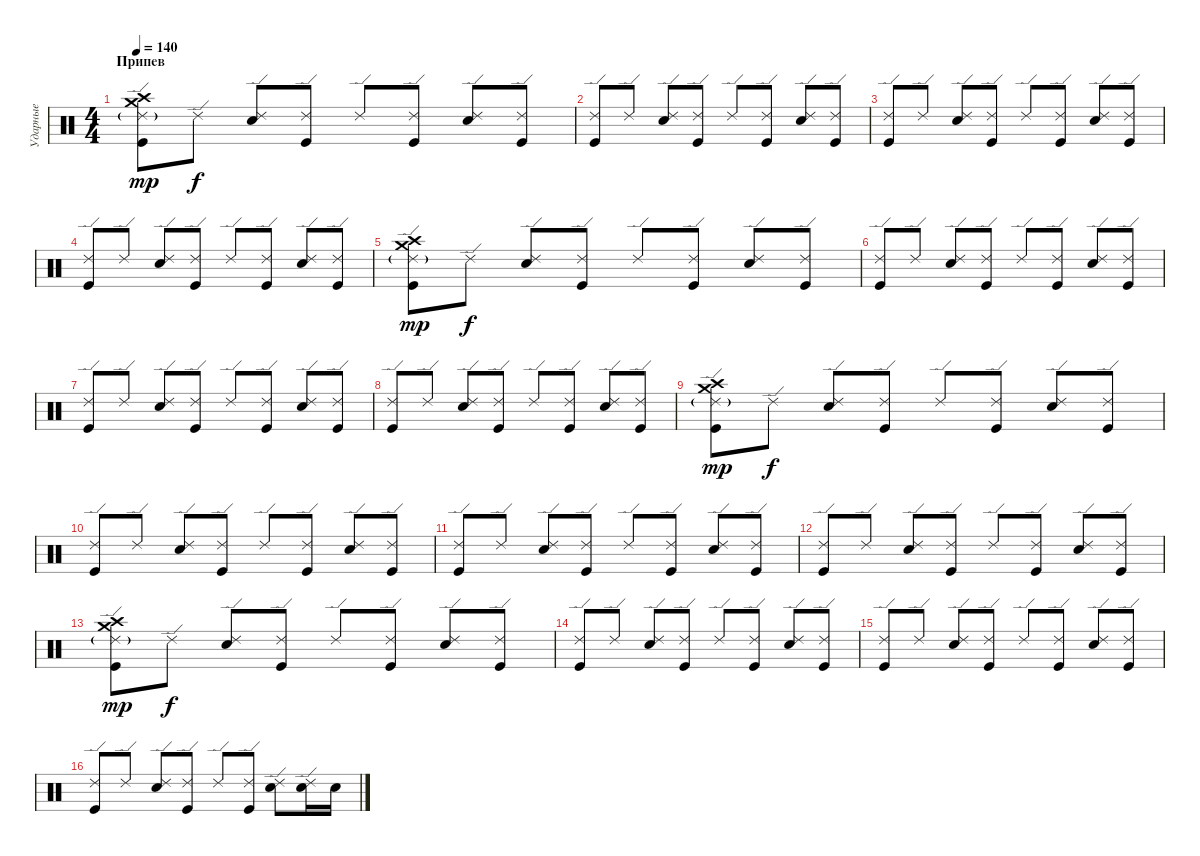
\track ("Ударные" "Ударные") {instrument percussion}
\staff {score}
\articulation defaults
\ts (4 4)
\section ("" "Припев")
\tempo 140
\clef neutral
\ks c
("Crash medium (hit)" "Crash high (hit)" "Ride (edge) 2"{g} "Kick (hit)").8{dy mp} "Ride (edge) 2".8{dy f} ("Ride (edge) 2" "Electric Snare (hit)").8 ("Ride (edge) 2" "Kick (hit)").8 "Ride (edge) 2".8 ("Ride (edge) 2" "Kick (hit)").8 ("Ride (edge) 2" "Electric Snare (hit)").8 ("Ride (edge) 2" "Kick (hit)").8 |
("Ride (edge) 2" "Kick (hit)").8 "Ride (edge) 2".8 ("Ride (edge) 2" "Electric Snare (hit)").8 ("Ride (edge) 2" "Kick (hit)").8 "Ride (edge) 2".8 ("Ride (edge) 2" "Kick (hit)").8 ("Ride (edge) 2" "Electric Snare (hit)").8 ("Ride (edge) 2" "Kick (hit)").8 |
("Ride (edge) 2" "Kick (hit)").8 "Ride (edge) 2".8 ("Ride (edge) 2" "Electric Snare (hit)").8 ("Ride (edge) 2" "Kick (hit)").8 "Ride (edge) 2".8 ("Ride (edge) 2" "Kick (hit)").8 ("Ride (edge) 2" "Electric Snare (hit)").8 ("Ride (edge) 2" "Kick (hit)").8 |
("Ride (edge) 2" "Kick (hit)").8 "Ride (edge) 2".8 ("Ride (edge) 2" "Electric Snare (hit)").8 ("Ride (edge) 2" "Kick (hit)").8 "Ride (edge) 2".8 ("Ride (edge) 2" "Kick (hit)").8 ("Ride (edge) 2" "Electric Snare (hit)").8 ("Ride (edge) 2" "Kick (hit)").8 |
("Crash medium (hit)" "Crash high (hit)" "Ride (edge) 2"{g} "Kick (hit)").8{dy mp} "Ride (edge) 2".8{dy f} ("Ride (edge) 2" "Electric Snare (hit)").8 ("Ride (edge) 2" "Kick (hit)").8 "Ride (edge) 2".8 ("Ride (edge) 2" "Kick (hit)").8 ("Ride (edge) 2" "Electric Snare (hit)").8 ("Ride (edge) 2" "Kick (hit)").8 |
("Ride (edge) 2" "Kick (hit)").8 "Ride (edge) 2".8 ("Ride (edge) 2" "Electric Snare (hit)").8 ("Ride (edge) 2" "Kick (hit)").8 "Ride (edge) 2".8 ("Ride (edge) 2" "Kick (hit)").8 ("Ride (edge) 2" "Electric Snare (hit)").8 ("Ride (edge) 2" "Kick (hit)").8 |
("Ride (edge) 2" "Kick (hit)").8 "Ride (edge) 2".8 ("Ride (edge) 2" "Electric Snare (hit)").8 ("Ride (edge) 2" "Kick (hit)").8 "Ride (edge) 2".8 ("Ride (edge) 2" "Kick (hit)").8 ("Ride (edge) 2" "Electric Snare (hit)").8 ("Ride (edge) 2" "Kick (hit)").8 |
("Ride (edge) 2" "Kick (hit)").8 "Ride (edge) 2".8 ("Ride (edge) 2" "Electric Snare (hit)").8 ("Ride (edge) 2" "Kick (hit)").8 "Ride (edge) 2".8 ("Ride (edge) 2" "Kick (hit)").8 ("Ride (edge) 2" "Electric Snare (hit)").8 ("Ride (edge) 2" "Kick (hit)").8 |
("Crash medium (hit)" "Crash high (hit)" "Ride (edge) 2"{g} "Kick (hit)").8{dy mp} "Ride (edge) 2".8{dy f} ("Ride (edge) 2" "Electric Snare (hit)").8 ("Ride (edge) 2" "Kick (hit)").8 "Ride (edge) 2".8 ("Ride (edge) 2" "Kick (hit)").8 ("Ride (edge) 2" "Electric Snare (hit)").8 ("Ride (edge) 2" "Kick (hit)").8 |
("Ride (edge) 2" "Kick (hit)").8 "Ride (edge) 2".8 ("Ride (edge) 2" "Electric Snare (hit)").8 ("Ride (edge) 2" "Kick (hit)").8 "Ride (edge) 2".8 ("Ride (edge) 2" "Kick (hit)").8 ("Ride (edge) 2" "Electric Snare (hit)").8 ("Ride (edge) 2" "Kick (hit)").8 |
("Ride (edge) 2" "Kick (hit)").8 "Ride (edge) 2".8 ("Ride (edge) 2" "Electric Snare (hit)").8 ("Ride (edge) 2" "Kick (hit)").8 "Ride (edge) 2".8 ("Ride (edge) 2" "Kick (hit)").8 ("Ride (edge) 2" "Electric Snare (hit)").8 ("Ride (edge) 2" "Kick (hit)").8 |
("Ride (edge) 2" "Kick (hit)").8 "Ride (edge) 2".8 ("Ride (edge) 2" "Electric Snare (hit)").8 ("Ride (edge) 2" "Kick (hit)").8 "Ride (edge) 2".8 ("Ride (edge) 2" "Kick (hit)").8 ("Ride (edge) 2" "Electric Snare (hit)").8 ("Ride (edge) 2" "Kick (hit)").8 |
("Crash medium (hit)" "Crash high (hit)" "Ride (edge) 2"{g} "Kick (hit)").8{dy mp} "Ride (edge) 2".8{dy f} ("Ride (edge) 2" "Electric Snare (hit)").8 ("Ride (edge) 2" "Kick (hit)").8 "Ride (edge) 2".8 ("Ride (edge) 2" "Kick (hit)").8 ("Ride (edge) 2" "Electric Snare (hit)").8 ("Ride (edge) 2" "Kick (hit)").8 |
("Ride (edge) 2" "Kick (hit)").8 "Ride (edge) 2".8 ("Ride (edge) 2" "Electric Snare (hit)").8 ("Ride (edge) 2" "Kick (hit)").8 "Ride (edge) 2".8 ("Ride (edge) 2" "Kick (hit)").8 ("Ride (edge) 2" "Electric Snare (hit)").8 ("Ride (edge) 2" "Kick (hit)").8 |
("Ride (edge) 2" "Kick (hit)").8 "Ride (edge) 2".8 ("Ride (edge) 2" "Electric Snare (hit)").8 ("Ride (edge) 2" "Kick (hit)").8 "Ride (edge) 2".8 ("Ride (edge) 2" "Kick (hit)").8 ("Ride (edge) 2" "Electric Snare (hit)").8 ("Ride (edge) 2" "Kick (hit)").8 |
("Ride (edge) 2" "Kick (hit)").8 "Ride (edge) 2".8 ("Ride (edge) 2" "Electric Snare (hit)").8 ("Ride (edge) 2" "Kick (hit)").8 "Ride (edge) 2".8 ("Ride (edge) 2" "Kick (hit)").8 ("Ride (edge) 2" "Electric Snare (hit)").8 ("Ride (edge) 2" "Electric Snare (hit)").16 "Electric Snare (hit)".16
